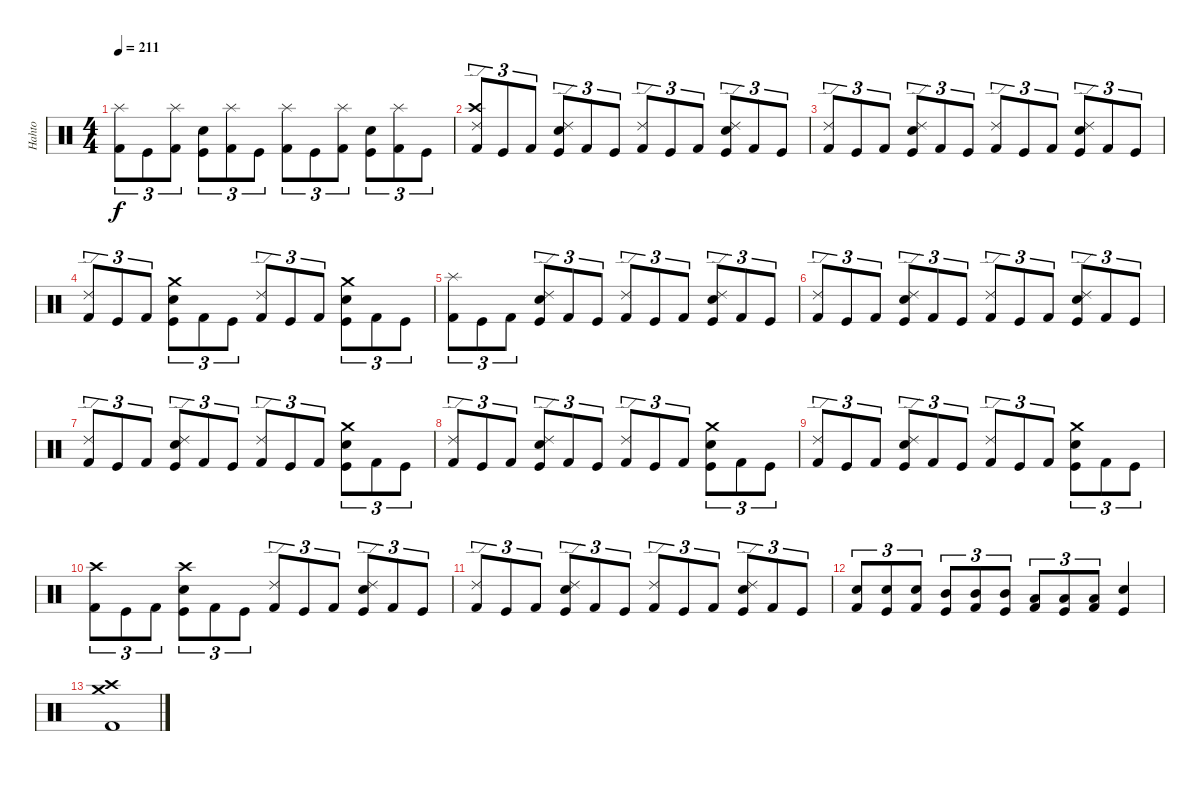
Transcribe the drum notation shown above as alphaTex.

\track ("Hahto" "Hahto") {instrument percussion}
\staff {score}
\articulation defaults
\ts (4 4)
\tempo 211
\clef neutral
\ks c
("Splash (hit)" "Kick (hit) 2").8{tu (3 2) dy f} "Kick (hit)".8{tu (3 2)} ("Splash (hit)" "Kick (hit) 2").8{tu (3 2)} ("Snare (hit) 2" "Kick (hit)").8{tu (3 2)} ("Splash (hit)" "Kick (hit) 2").8{tu (3 2)} "Kick (hit)".8{tu (3 2)} ("Splash (hit)" "Kick (hit) 2").8{tu (3 2)} "Kick (hit)".8{tu (3 2)} ("Splash (hit)" "Kick (hit) 2").8{tu (3 2)} ("Snare (hit) 2" "Kick (hit)").8{tu (3 2)} ("Splash (hit)" "Kick (hit) 2").8{tu (3 2)} "Kick (hit)".8{tu (3 2)} |
("Crash high (hit)" "Ride (edge) 2" "Kick (hit) 2").8{tu (3 2)} "Kick (hit)".8{tu (3 2)} "Kick (hit) 2".8{tu (3 2)} ("Ride (edge) 2" "Snare (hit) 2" "Kick (hit)").8{tu (3 2)} "Kick (hit) 2".8{tu (3 2)} "Kick (hit)".8{tu (3 2)} ("Ride (edge) 2" "Kick (hit) 2").8{tu (3 2)} "Kick (hit)".8{tu (3 2)} "Kick (hit) 2".8{tu (3 2)} ("Ride (edge) 2" "Snare (hit) 2" "Kick (hit)").8{tu (3 2)} "Kick (hit) 2".8{tu (3 2)} "Kick (hit)".8{tu (3 2)} |
("Ride (edge) 2" "Kick (hit) 2").8{tu (3 2)} "Kick (hit)".8{tu (3 2)} "Kick (hit) 2".8{tu (3 2)} ("Ride (edge) 2" "Snare (hit) 2" "Kick (hit)").8{tu (3 2)} "Kick (hit) 2".8{tu (3 2)} "Kick (hit)".8{tu (3 2)} ("Ride (edge) 2" "Kick (hit) 2").8{tu (3 2)} "Kick (hit)".8{tu (3 2)} "Kick (hit) 2".8{tu (3 2)} ("Ride (edge) 2" "Snare (hit) 2" "Kick (hit)").8{tu (3 2)} "Kick (hit) 2".8{tu (3 2)} "Kick (hit)".8{tu (3 2)} |
("Ride (edge) 2" "Kick (hit) 2").8{tu (3 2)} "Kick (hit)".8{tu (3 2)} "Kick (hit) 2".8{tu (3 2)} ("Crash medium (hit)" "Snare (hit) 2" "Kick (hit)").8{tu (3 2)} "Kick (hit) 2".8{tu (3 2)} "Kick (hit)".8{tu (3 2)} ("Ride (edge) 2" "Kick (hit) 2").8{tu (3 2)} "Kick (hit)".8{tu (3 2)} "Kick (hit) 2".8{tu (3 2)} ("Crash medium (hit)" "Snare (hit) 2" "Kick (hit)").8{tu (3 2)} "Kick (hit) 2".8{tu (3 2)} "Kick (hit)".8{tu (3 2)} |
("Splash (hit)" "Kick (hit) 2").8{tu (3 2)} "Kick (hit)".8{tu (3 2)} "Kick (hit) 2".8{tu (3 2)} ("Ride (edge) 2" "Snare (hit) 2" "Kick (hit)").8{tu (3 2)} "Kick (hit) 2".8{tu (3 2)} "Kick (hit)".8{tu (3 2)} ("Ride (edge) 2" "Kick (hit) 2").8{tu (3 2)} "Kick (hit)".8{tu (3 2)} "Kick (hit) 2".8{tu (3 2)} ("Ride (edge) 2" "Snare (hit) 2" "Kick (hit)").8{tu (3 2)} "Kick (hit) 2".8{tu (3 2)} "Kick (hit)".8{tu (3 2)} |
("Ride (edge) 2" "Kick (hit) 2").8{tu (3 2)} "Kick (hit)".8{tu (3 2)} "Kick (hit) 2".8{tu (3 2)} ("Ride (edge) 2" "Snare (hit) 2" "Kick (hit)").8{tu (3 2)} "Kick (hit) 2".8{tu (3 2)} "Kick (hit)".8{tu (3 2)} ("Ride (edge) 2" "Kick (hit) 2").8{tu (3 2)} "Kick (hit)".8{tu (3 2)} "Kick (hit) 2".8{tu (3 2)} ("Ride (edge) 2" "Snare (hit) 2" "Kick (hit)").8{tu (3 2)} "Kick (hit) 2".8{tu (3 2)} "Kick (hit)".8{tu (3 2)} |
("Ride (edge) 2" "Kick (hit) 2").8{tu (3 2)} "Kick (hit)".8{tu (3 2)} "Kick (hit) 2".8{tu (3 2)} ("Ride (edge) 2" "Snare (hit) 2" "Kick (hit)").8{tu (3 2)} "Kick (hit) 2".8{tu (3 2)} "Kick (hit)".8{tu (3 2)} ("Ride (edge) 2" "Kick (hit) 2").8{tu (3 2)} "Kick (hit)".8{tu (3 2)} "Kick (hit) 2".8{tu (3 2)} ("Crash medium (hit)" "Snare (hit) 2" "Kick (hit)").8{tu (3 2)} "Kick (hit) 2".8{tu (3 2)} "Kick (hit)".8{tu (3 2)} |
("Ride (edge) 2" "Kick (hit) 2").8{tu (3 2)} "Kick (hit)".8{tu (3 2)} "Kick (hit) 2".8{tu (3 2)} ("Ride (edge) 2" "Snare (hit) 2" "Kick (hit)").8{tu (3 2)} "Kick (hit) 2".8{tu (3 2)} "Kick (hit)".8{tu (3 2)} ("Ride (edge) 2" "Kick (hit) 2").8{tu (3 2)} "Kick (hit)".8{tu (3 2)} "Kick (hit) 2".8{tu (3 2)} ("Crash medium (hit)" "Snare (hit) 2" "Kick (hit)").8{tu (3 2)} "Kick (hit) 2".8{tu (3 2)} "Kick (hit)".8{tu (3 2)} |
("Ride (edge) 2" "Kick (hit) 2").8{tu (3 2)} "Kick (hit)".8{tu (3 2)} "Kick (hit) 2".8{tu (3 2)} ("Ride (edge) 2" "Snare (hit) 2" "Kick (hit)").8{tu (3 2)} "Kick (hit) 2".8{tu (3 2)} "Kick (hit)".8{tu (3 2)} ("Ride (edge) 2" "Kick (hit) 2").8{tu (3 2)} "Kick (hit)".8{tu (3 2)} "Kick (hit) 2".8{tu (3 2)} ("Crash medium (hit)" "Snare (hit) 2" "Kick (hit)").8{tu (3 2)} "Kick (hit) 2".8{tu (3 2)} "Kick (hit)".8{tu (3 2)} |
("Crash high (hit)" "Kick (hit) 2").8{tu (3 2)} "Kick (hit)".8{tu (3 2)} "Kick (hit) 2".8{tu (3 2)} ("Crash high (hit)" "Snare (hit) 2" "Kick (hit)").8{tu (3 2)} "Kick (hit) 2".8{tu (3 2)} "Kick (hit)".8{tu (3 2)} ("Ride (edge) 2" "Kick (hit) 2").8{tu (3 2)} "Kick (hit)".8{tu (3 2)} "Kick (hit) 2".8{tu (3 2)} ("Ride (edge) 2" "Snare (hit) 2" "Kick (hit)").8{tu (3 2)} "Kick (hit) 2".8{tu (3 2)} "Kick (hit)".8{tu (3 2)} |
("Ride (edge) 2" "Kick (hit) 2").8{tu (3 2)} "Kick (hit)".8{tu (3 2)} "Kick (hit) 2".8{tu (3 2)} ("Ride (edge) 2" "Snare (hit) 2" "Kick (hit)").8{tu (3 2)} "Kick (hit) 2".8{tu (3 2)} "Kick (hit)".8{tu (3 2)} ("Ride (edge) 2" "Kick (hit) 2").8{tu (3 2)} "Kick (hit)".8{tu (3 2)} "Kick (hit) 2".8{tu (3 2)} ("Ride (edge) 2" "Snare (hit) 2" "Kick (hit)").8{tu (3 2)} "Kick (hit) 2".8{tu (3 2)} "Kick (hit)".8{tu (3 2)} |
("Snare (hit) 2" "Kick (hit) 2").8{tu (3 2)} ("Snare (hit) 2" "Kick (hit)").8{tu (3 2)} ("Snare (hit) 2" "Kick (hit) 2").8{tu (3 2)} ("Mid Tom (hit)" "Kick (hit)").8{tu (3 2)} ("Mid Tom (hit)" "Kick (hit) 2").8{tu (3 2)} ("Mid Tom (hit)" "Kick (hit)").8{tu (3 2)} ("Low Tom (hit)" "Kick (hit) 2").8{tu (3 2)} ("Low Tom (hit)" "Kick (hit)").8{tu (3 2)} ("Low Tom (hit)" "Kick (hit) 2").8{tu (3 2)} ("Snare (hit) 2" "Kick (hit)").4 |
("Crash high (hit)" "Crash medium (hit)" "Kick (hit) 2").1
